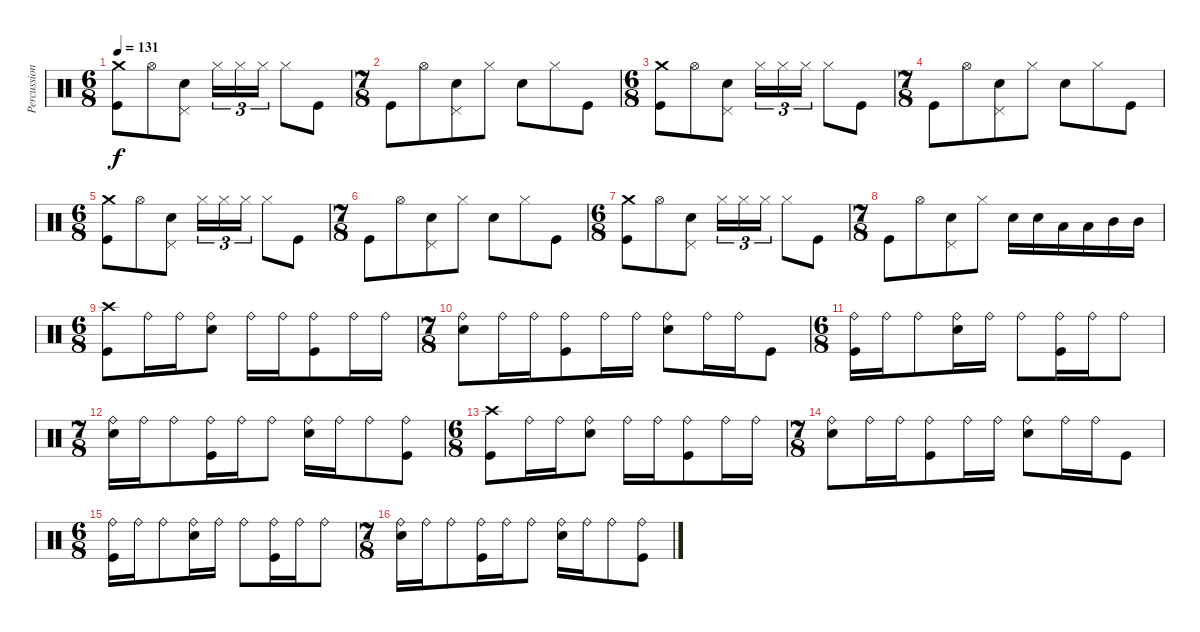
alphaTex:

\track ("Percussion" "Percussion") {instrument percussion}
\staff {score}
\articulation defaults
\ts (6 8)
\tempo 131
\clef neutral
\ks c
("Crash medium (hit)" "Kick (hit)").8{dy f} "Hi-Hat (open)".8 ("Snare (hit) 2" "Pedal Hi-Hat (hit)").8 "Hi-Hat (closed)".16{tu (3 2)} "Hi-Hat (closed)".16{tu (3 2)} "Hi-Hat (closed)".16{tu (3 2)} "Hi-Hat (closed)".8 "Kick (hit)".8 |
\ts (7 8)
"Kick (hit)".8 "Hi-Hat (open)".8 ("Snare (hit) 2" "Pedal Hi-Hat (hit)").8 "Hi-Hat (closed)".8 "Snare (hit) 2".8 "Hi-Hat (closed)".8 "Kick (hit)".8 |
\ts (6 8)
("Crash medium (hit)" "Kick (hit)").8 "Hi-Hat (open)".8 ("Snare (hit) 2" "Pedal Hi-Hat (hit)").8 "Hi-Hat (closed)".16{tu (3 2)} "Hi-Hat (closed)".16{tu (3 2)} "Hi-Hat (closed)".16{tu (3 2)} "Hi-Hat (closed)".8 "Kick (hit)".8 |
\ts (7 8)
"Kick (hit)".8 "Hi-Hat (open)".8 ("Snare (hit) 2" "Pedal Hi-Hat (hit)").8 "Hi-Hat (closed)".8 "Snare (hit) 2".8 "Hi-Hat (closed)".8 "Kick (hit)".8 |
\ts (6 8)
("Crash medium (hit)" "Kick (hit)").8 "Hi-Hat (open)".8 ("Snare (hit) 2" "Pedal Hi-Hat (hit)").8 "Hi-Hat (closed)".16{tu (3 2)} "Hi-Hat (closed)".16{tu (3 2)} "Hi-Hat (closed)".16{tu (3 2)} "Hi-Hat (closed)".8 "Kick (hit)".8 |
\ts (7 8)
"Kick (hit)".8 "Hi-Hat (open)".8 ("Snare (hit) 2" "Pedal Hi-Hat (hit)").8 "Hi-Hat (closed)".8 "Snare (hit) 2".8 "Hi-Hat (closed)".8 "Kick (hit)".8 |
\ts (6 8)
("Crash medium (hit)" "Kick (hit)").8 "Hi-Hat (open)".8 ("Snare (hit) 2" "Pedal Hi-Hat (hit)").8 "Hi-Hat (closed)".16{tu (3 2)} "Hi-Hat (closed)".16{tu (3 2)} "Hi-Hat (closed)".16{tu (3 2)} "Hi-Hat (closed)".8 "Kick (hit)".8 |
\ts (7 8)
"Kick (hit)".8 "Hi-Hat (open)".8 ("Snare (hit) 2" "Pedal Hi-Hat (hit)").8 "Hi-Hat (closed)".8 "Electric Snare (hit)".16 "Electric Snare (hit)".16 "Low Tom (hit)".16 "Low Tom (hit)".16 "Mid Tom (hit)".16 "Mid Tom (hit)".16 |
\ts (6 8)
("Crash high (hit)" "Kick (hit)").8 "Ride (bell)".16 "Ride (bell)".16 ("Ride (bell)" "Snare (hit) 2").8 "Ride (bell)".16 "Ride (bell)".16 ("Ride (bell)" "Kick (hit)").8 "Ride (bell)".16 "Ride (bell)".16 |
\ts (7 8)
("Ride (bell)" "Snare (hit) 2").8 "Ride (bell)".16 "Ride (bell)".16 ("Ride (bell)" "Kick (hit)").8 "Ride (bell)".16 "Ride (bell)".16 ("Ride (bell)" "Snare (hit) 2").8 "Ride (bell)".16 "Ride (bell)".16 "Kick (hit)".8 |
\ts (6 8)
("Ride (bell)" "Kick (hit)").16 "Ride (bell)".16 "Ride (bell)".8 ("Ride (bell)" "Snare (hit) 2").16 "Ride (bell)".16 "Ride (bell)".8 ("Ride (bell)" "Kick (hit)").16 "Ride (bell)".16 "Ride (bell)".8 |
\ts (7 8)
("Ride (bell)" "Snare (hit) 2").16 "Ride (bell)".16 "Ride (bell)".8 ("Ride (bell)" "Kick (hit)").16 "Ride (bell)".16 "Ride (bell)".8 ("Ride (bell)" "Snare (hit) 2").16 "Ride (bell)".16 "Ride (bell)".8 ("Ride (bell)" "Kick (hit)").8 |
\ts (6 8)
("Crash high (hit)" "Kick (hit)").8 "Ride (bell)".16 "Ride (bell)".16 ("Ride (bell)" "Snare (hit) 2").8 "Ride (bell)".16 "Ride (bell)".16 ("Ride (bell)" "Kick (hit)").8 "Ride (bell)".16 "Ride (bell)".16 |
\ts (7 8)
("Ride (bell)" "Snare (hit) 2").8 "Ride (bell)".16 "Ride (bell)".16 ("Ride (bell)" "Kick (hit)").8 "Ride (bell)".16 "Ride (bell)".16 ("Ride (bell)" "Snare (hit) 2").8 "Ride (bell)".16 "Ride (bell)".16 "Kick (hit)".8 |
\ts (6 8)
("Ride (bell)" "Kick (hit)").16 "Ride (bell)".16 "Ride (bell)".8 ("Ride (bell)" "Snare (hit) 2").16 "Ride (bell)".16 "Ride (bell)".8 ("Ride (bell)" "Kick (hit)").16 "Ride (bell)".16 "Ride (bell)".8 |
\ts (7 8)
("Ride (bell)" "Snare (hit) 2").16 "Ride (bell)".16 "Ride (bell)".8 ("Ride (bell)" "Kick (hit)").16 "Ride (bell)".16 "Ride (bell)".8 ("Ride (bell)" "Snare (hit) 2").16 "Ride (bell)".16 "Ride (bell)".8 ("Ride (bell)" "Kick (hit)").8
